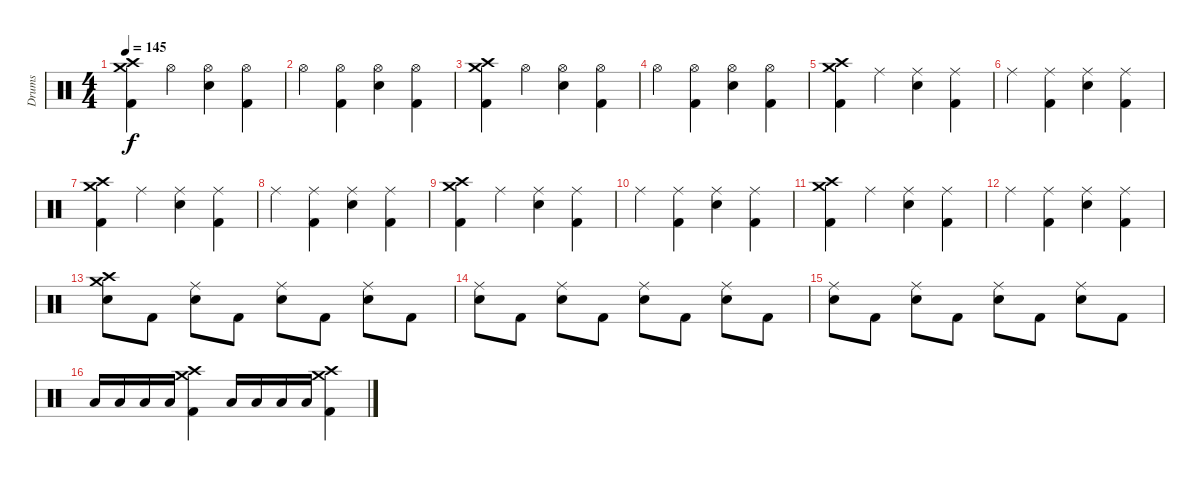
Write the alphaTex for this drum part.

\track ("Drums" "Drums") {instrument percussion}
\staff {score}
\articulation defaults
\ts (4 4)
\tempo 145
\clef neutral
\ks c
("Crash medium (hit)" "Crash high (hit)" "Kick (hit) 2").4{dy f} "Hi-Hat (open)".4 ("Hi-Hat (open)" "Snare (hit) 2").4 ("Hi-Hat (open)" "Kick (hit) 2").4 |
"Hi-Hat (open)".4 ("Hi-Hat (open)" "Kick (hit) 2").4 ("Hi-Hat (open)" "Snare (hit) 2").4 ("Hi-Hat (open)" "Kick (hit) 2").4 |
("Crash medium (hit)" "Crash high (hit)" "Kick (hit) 2").4 "Hi-Hat (open)".4 ("Hi-Hat (open)" "Snare (hit) 2").4 ("Hi-Hat (open)" "Kick (hit) 2").4 |
"Hi-Hat (open)".4 ("Hi-Hat (open)" "Kick (hit) 2").4 ("Hi-Hat (open)" "Snare (hit) 2").4 ("Hi-Hat (open)" "Kick (hit) 2").4 |
("Crash medium (hit)" "Crash high (hit)" "Kick (hit) 2").4 "Ride (middle)".4 ("Ride (middle)" "Snare (hit) 2").4 ("Ride (middle)" "Kick (hit) 2").4 |
"Ride (middle)".4 ("Ride (middle)" "Kick (hit) 2").4 ("Ride (middle)" "Snare (hit) 2").4 ("Ride (middle)" "Kick (hit) 2").4 |
("Crash medium (hit)" "Crash high (hit)" "Kick (hit) 2").4 "Ride (middle)".4 ("Ride (middle)" "Snare (hit) 2").4 ("Ride (middle)" "Kick (hit) 2").4 |
"Ride (middle)".4 ("Ride (middle)" "Kick (hit) 2").4 ("Ride (middle)" "Snare (hit) 2").4 ("Ride (middle)" "Kick (hit) 2").4 |
("Crash medium (hit)" "Crash high (hit)" "Kick (hit) 2").4 "Ride (middle)".4 ("Ride (middle)" "Snare (hit) 2").4 ("Ride (middle)" "Kick (hit) 2").4 |
"Ride (middle)".4 ("Ride (middle)" "Kick (hit) 2").4 ("Ride (middle)" "Snare (hit) 2").4 ("Ride (middle)" "Kick (hit) 2").4 |
("Crash medium (hit)" "Crash high (hit)" "Kick (hit) 2").4 "Ride (middle)".4 ("Ride (middle)" "Snare (hit) 2").4 ("Ride (middle)" "Kick (hit) 2").4 |
"Ride (middle)".4 ("Ride (middle)" "Kick (hit) 2").4 ("Ride (middle)" "Snare (hit) 2").4 ("Ride (middle)" "Kick (hit) 2").4 |
("Crash medium (hit)" "Snare (hit) 2" "Crash high (hit)").8 "Kick (hit) 2".8 ("Ride (middle)" "Snare (hit) 2").8 "Kick (hit) 2".8 ("Ride (middle)" "Snare (hit) 2").8 "Kick (hit) 2".8 ("Ride (middle)" "Snare (hit) 2").8 "Kick (hit) 2".8 |
("Ride (middle)" "Snare (hit) 2").8 "Kick (hit) 2".8 ("Ride (middle)" "Snare (hit) 2").8 "Kick (hit) 2".8 ("Ride (middle)" "Snare (hit) 2").8 "Kick (hit) 2".8 ("Ride (middle)" "Snare (hit) 2").8 "Kick (hit) 2".8 |
("Ride (middle)" "Snare (hit) 2").8 "Kick (hit) 2".8 ("Ride (middle)" "Snare (hit) 2").8 "Kick (hit) 2".8 ("Ride (middle)" "Snare (hit) 2").8 "Kick (hit) 2".8 ("Ride (middle)" "Snare (hit) 2").8 "Kick (hit) 2".8 |
"Low Tom (hit)".16 "Low Tom (hit)".16 "Low Tom (hit)".16 "Low Tom (hit)".16 ("Crash high (hit)" "Crash medium (hit)" "Kick (hit) 2").4 "Low Tom (hit)".16 "Low Tom (hit)".16 "Low Tom (hit)".16 "Low Tom (hit)".16 ("Crash medium (hit)" "Crash high (hit)" "Kick (hit) 2").4
